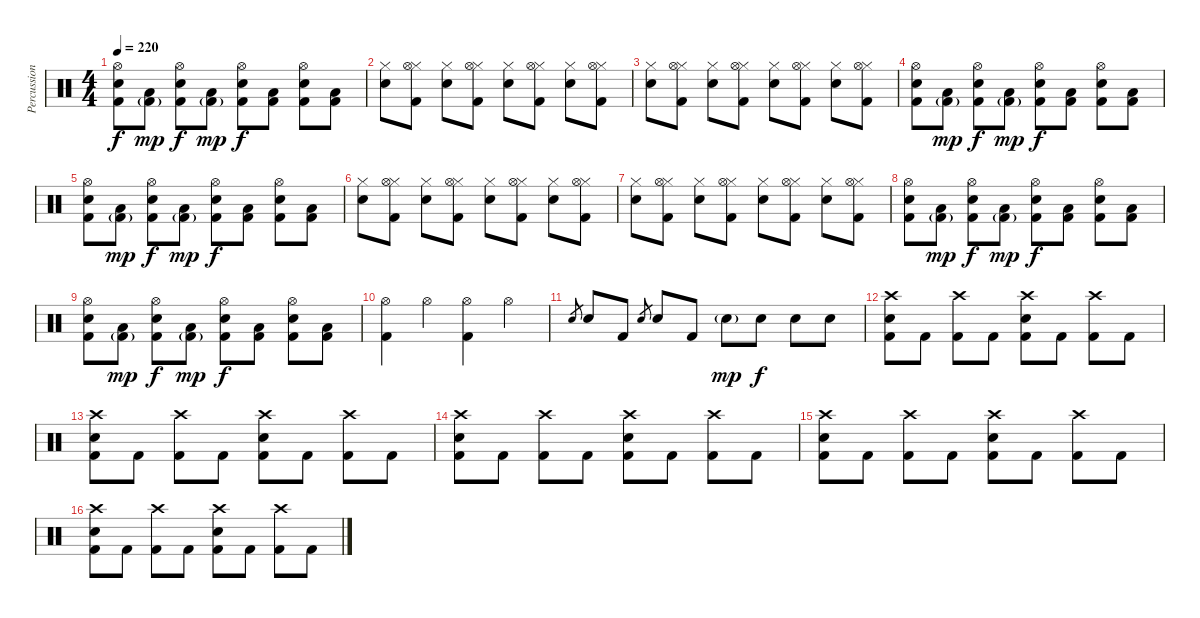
\track ("Percussions" "Percussion") {instrument percussion}
\staff {score}
\articulation defaults
\ts (4 4)
\tempo 220
\clef neutral
\ks c
("Hi-Hat (open)" "Electric Snare (hit)" "Kick (hit) 2").8{dy f} ("Low Tom (hit)" "Kick (hit) 2"{g}).8{dy mp} ("Hi-Hat (open)" "Electric Snare (hit)" "Kick (hit) 2").8{dy f} ("Low Tom (hit)" "Kick (hit) 2"{g}).8{dy mp} ("Hi-Hat (open)" "Electric Snare (hit)" "Kick (hit) 2").8{dy f} ("Low Tom (hit)" "Kick (hit) 2").8 ("Hi-Hat (open)" "Electric Snare (hit)" "Kick (hit) 2").8 ("Low Tom (hit)" "Kick (hit) 2").8 |
("Hi-Hat (closed)" "Electric Snare (hit)").8 ("Hi-Hat (closed)" "Kick (hit) 2" "Hi-Hat (open)").8 ("Hi-Hat (closed)" "Electric Snare (hit)").8 ("Hi-Hat (closed)" "Kick (hit) 2" "Hi-Hat (open)").8 ("Hi-Hat (closed)" "Electric Snare (hit)").8 ("Hi-Hat (closed)" "Kick (hit) 2" "Hi-Hat (open)").8 ("Hi-Hat (closed)" "Electric Snare (hit)").8 ("Hi-Hat (closed)" "Kick (hit) 2" "Hi-Hat (open)").8 |
("Hi-Hat (closed)" "Electric Snare (hit)").8 ("Hi-Hat (closed)" "Kick (hit) 2" "Hi-Hat (open)").8 ("Hi-Hat (closed)" "Electric Snare (hit)").8 ("Hi-Hat (closed)" "Kick (hit) 2" "Hi-Hat (open)").8 ("Hi-Hat (closed)" "Electric Snare (hit)").8 ("Hi-Hat (closed)" "Kick (hit) 2" "Hi-Hat (open)").8 ("Hi-Hat (closed)" "Electric Snare (hit)").8 ("Hi-Hat (closed)" "Kick (hit) 2" "Hi-Hat (open)").8 |
("Hi-Hat (open)" "Electric Snare (hit)" "Kick (hit) 2").8 ("Low Tom (hit)" "Kick (hit) 2"{g}).8{dy mp} ("Hi-Hat (open)" "Electric Snare (hit)" "Kick (hit) 2").8{dy f} ("Low Tom (hit)" "Kick (hit) 2"{g}).8{dy mp} ("Hi-Hat (open)" "Electric Snare (hit)" "Kick (hit) 2").8{dy f} ("Low Tom (hit)" "Kick (hit) 2").8 ("Hi-Hat (open)" "Electric Snare (hit)" "Kick (hit) 2").8 ("Low Tom (hit)" "Kick (hit) 2").8 |
("Hi-Hat (open)" "Electric Snare (hit)" "Kick (hit) 2").8 ("Low Tom (hit)" "Kick (hit) 2"{g}).8{dy mp} ("Hi-Hat (open)" "Electric Snare (hit)" "Kick (hit) 2").8{dy f} ("Low Tom (hit)" "Kick (hit) 2"{g}).8{dy mp} ("Hi-Hat (open)" "Electric Snare (hit)" "Kick (hit) 2").8{dy f} ("Low Tom (hit)" "Kick (hit) 2").8 ("Hi-Hat (open)" "Electric Snare (hit)" "Kick (hit) 2").8 ("Low Tom (hit)" "Kick (hit) 2").8 |
("Hi-Hat (closed)" "Electric Snare (hit)").8 ("Hi-Hat (closed)" "Kick (hit) 2" "Hi-Hat (open)").8 ("Hi-Hat (closed)" "Electric Snare (hit)").8 ("Hi-Hat (closed)" "Kick (hit) 2" "Hi-Hat (open)").8 ("Hi-Hat (closed)" "Electric Snare (hit)").8 ("Hi-Hat (closed)" "Kick (hit) 2" "Hi-Hat (open)").8 ("Hi-Hat (closed)" "Electric Snare (hit)").8 ("Hi-Hat (closed)" "Kick (hit) 2" "Hi-Hat (open)").8 |
("Hi-Hat (closed)" "Electric Snare (hit)").8 ("Hi-Hat (closed)" "Kick (hit) 2" "Hi-Hat (open)").8 ("Hi-Hat (closed)" "Electric Snare (hit)").8 ("Hi-Hat (closed)" "Kick (hit) 2" "Hi-Hat (open)").8 ("Hi-Hat (closed)" "Electric Snare (hit)").8 ("Hi-Hat (closed)" "Kick (hit) 2" "Hi-Hat (open)").8 ("Hi-Hat (closed)" "Electric Snare (hit)").8 ("Hi-Hat (closed)" "Kick (hit) 2" "Hi-Hat (open)").8 |
("Hi-Hat (open)" "Electric Snare (hit)" "Kick (hit) 2").8 ("Low Tom (hit)" "Kick (hit) 2"{g}).8{dy mp} ("Hi-Hat (open)" "Electric Snare (hit)" "Kick (hit) 2").8{dy f} ("Low Tom (hit)" "Kick (hit) 2"{g}).8{dy mp} ("Hi-Hat (open)" "Electric Snare (hit)" "Kick (hit) 2").8{dy f} ("Low Tom (hit)" "Kick (hit) 2").8 ("Hi-Hat (open)" "Electric Snare (hit)" "Kick (hit) 2").8 ("Low Tom (hit)" "Kick (hit) 2").8 |
("Hi-Hat (open)" "Electric Snare (hit)" "Kick (hit) 2").8 ("Low Tom (hit)" "Kick (hit) 2"{g}).8{dy mp} ("Hi-Hat (open)" "Electric Snare (hit)" "Kick (hit) 2").8{dy f} ("Low Tom (hit)" "Kick (hit) 2"{g}).8{dy mp} ("Hi-Hat (open)" "Electric Snare (hit)" "Kick (hit) 2").8{dy f} ("Low Tom (hit)" "Kick (hit) 2").8 ("Hi-Hat (open)" "Electric Snare (hit)" "Kick (hit) 2").8 ("Low Tom (hit)" "Kick (hit) 2").8 |
("Hi-Hat (open)" "Kick (hit) 2").4 "Hi-Hat (open)".4 ("Hi-Hat (open)" "Kick (hit) 2").4 "Hi-Hat (open)".4 |
"Electric Snare (hit)".8{gr} "Electric Snare (hit)".8 "Kick (hit) 2".8 "Electric Snare (hit)".8{gr} "Electric Snare (hit)".8 "Kick (hit) 2".8 "Electric Snare (hit)"{g}.8{dy mp} "Electric Snare (hit)".8{dy f} "Electric Snare (hit)".8 "Electric Snare (hit)".8 |
("Crash high (hit)" "Electric Snare (hit)" "Kick (hit) 2").8 "Kick (hit) 2".8 ("Crash high (hit)" "Kick (hit) 2").8 "Kick (hit) 2".8 ("Crash high (hit)" "Electric Snare (hit)" "Kick (hit) 2").8 "Kick (hit) 2".8 ("Crash high (hit)" "Kick (hit) 2").8 "Kick (hit) 2".8 |
("Crash high (hit)" "Electric Snare (hit)" "Kick (hit) 2").8 "Kick (hit) 2".8 ("Crash high (hit)" "Kick (hit) 2").8 "Kick (hit) 2".8 ("Crash high (hit)" "Electric Snare (hit)" "Kick (hit) 2").8 "Kick (hit) 2".8 ("Crash high (hit)" "Kick (hit) 2").8 "Kick (hit) 2".8 |
("Crash high (hit)" "Electric Snare (hit)" "Kick (hit) 2").8 "Kick (hit) 2".8 ("Crash high (hit)" "Kick (hit) 2").8 "Kick (hit) 2".8 ("Crash high (hit)" "Electric Snare (hit)" "Kick (hit) 2").8 "Kick (hit) 2".8 ("Crash high (hit)" "Kick (hit) 2").8 "Kick (hit) 2".8 |
("Crash high (hit)" "Electric Snare (hit)" "Kick (hit) 2").8 "Kick (hit) 2".8 ("Crash high (hit)" "Kick (hit) 2").8 "Kick (hit) 2".8 ("Crash high (hit)" "Electric Snare (hit)" "Kick (hit) 2").8 "Kick (hit) 2".8 ("Crash high (hit)" "Kick (hit) 2").8 "Kick (hit) 2".8 |
("Crash high (hit)" "Electric Snare (hit)" "Kick (hit) 2").8 "Kick (hit) 2".8 ("Crash high (hit)" "Kick (hit) 2").8 "Kick (hit) 2".8 ("Crash high (hit)" "Electric Snare (hit)" "Kick (hit) 2").8 "Kick (hit) 2".8 ("Crash high (hit)" "Kick (hit) 2").8 "Kick (hit) 2".8
